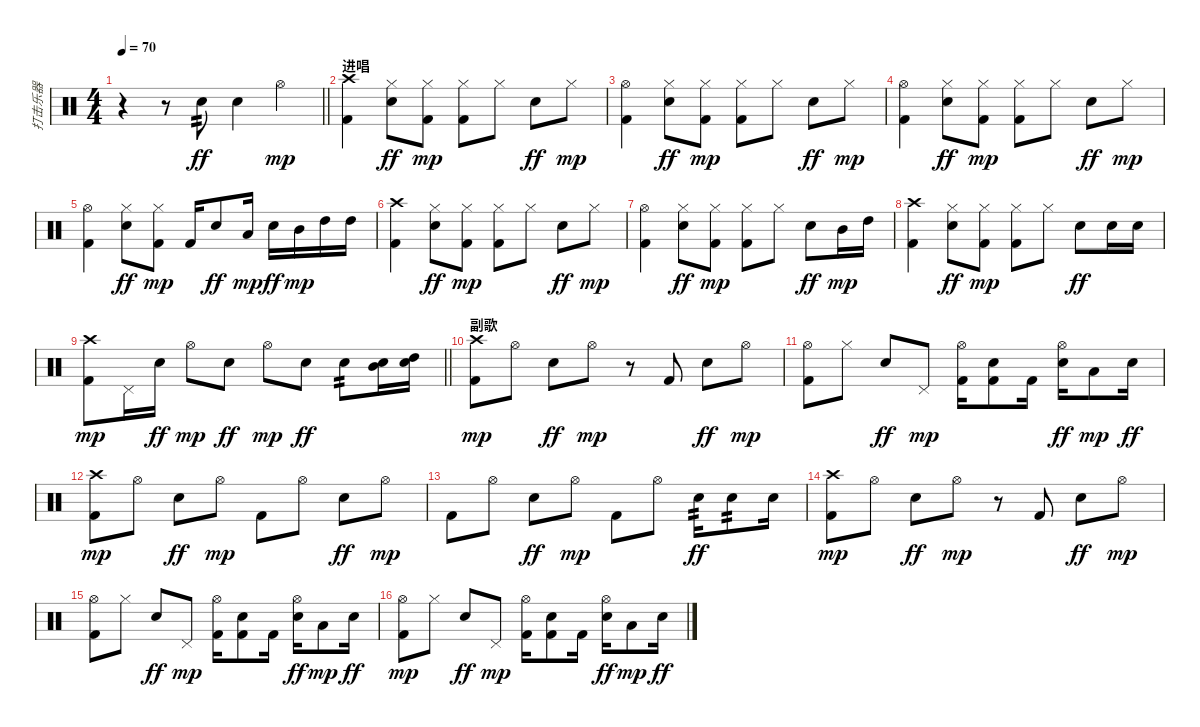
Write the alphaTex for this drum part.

\track ("打击乐器" "打击乐器") {instrument percussion}
\staff {score}
\articulation defaults
\ts (4 4)
\tempo 70
\clef neutral
\barLineRight lightlight
\ks c
r.4{dy mp} r.8 "Snare (hit) 2".8{tp 2 dy ff} "Snare (hit) 2".4 "Hi-Hat (open)".4{dy mp} |
\section ("" "进唱")
("Crash high (hit)" "Kick (hit) 2").4 ("Hi-Hat (closed)" "Snare (hit) 2").8{dy ff} ("Hi-Hat (closed)" "Kick (hit) 2").8{dy mp} ("Hi-Hat (closed)" "Kick (hit) 2").8 "Hi-Hat (closed)".8 "Snare (hit) 2".8{dy ff} "Hi-Hat (closed)".8{dy mp} |
("Hi-Hat (open)" "Kick (hit) 2").4 ("Hi-Hat (closed)" "Snare (hit) 2").8{dy ff} ("Hi-Hat (closed)" "Kick (hit) 2").8{dy mp} ("Hi-Hat (closed)" "Kick (hit) 2").8 "Hi-Hat (closed)".8 "Snare (hit) 2".8{dy ff} "Hi-Hat (closed)".8{dy mp} |
("Hi-Hat (open)" "Kick (hit) 2").4 ("Hi-Hat (closed)" "Snare (hit) 2").8{dy ff} ("Hi-Hat (closed)" "Kick (hit) 2").8{dy mp} ("Hi-Hat (closed)" "Kick (hit) 2").8 "Hi-Hat (closed)".8 "Snare (hit) 2".8{dy ff} "Hi-Hat (closed)".8{dy mp} |
("Hi-Hat (open)" "Kick (hit) 2").4 ("Hi-Hat (closed)" "Snare (hit) 2").8{dy ff} ("Hi-Hat (closed)" "Kick (hit) 2").8{dy mp} "Kick (hit) 2".16 "Snare (hit) 2".8{dy ff} "Low Tom (hit)".16{dy mp} "Snare (hit) 2".16{dy ff} "Mid Tom (hit)".16{dy mp} "High Tom (hit)".16 "High Tom (hit)".16 |
("Crash high (hit)" "Kick (hit) 2").4 ("Hi-Hat (closed)" "Snare (hit) 2").8{dy ff} ("Hi-Hat (closed)" "Kick (hit) 2").8{dy mp} ("Hi-Hat (closed)" "Kick (hit) 2").8 "Hi-Hat (closed)".8 "Snare (hit) 2".8{dy ff} "Hi-Hat (closed)".8{dy mp} |
("Hi-Hat (open)" "Kick (hit) 2").4 ("Hi-Hat (closed)" "Snare (hit) 2").8{dy ff} ("Hi-Hat (closed)" "Kick (hit) 2").8{dy mp} ("Hi-Hat (closed)" "Kick (hit) 2").8 "Hi-Hat (closed)".8 "Snare (hit) 2".8{dy ff} "Mid Tom (hit)".16{dy mp} "High Tom (hit)".16 |
("Crash high (hit)" "Kick (hit) 2").4 ("Hi-Hat (closed)" "Snare (hit) 2").8{dy ff} ("Hi-Hat (closed)" "Kick (hit) 2").8{dy mp} ("Hi-Hat (closed)" "Kick (hit) 2").8 "Hi-Hat (closed)".8 "Snare (hit) 2".8{dy ff} "Snare (hit) 2".16 "Snare (hit) 2".16 |
\barLineRight lightlight
("Crash high (hit)" "Kick (hit) 2").8{dy mp} "Pedal Hi-Hat (hit)".16 "Snare (hit) 2".16{dy ff} "Hi-Hat (open)".8{dy mp} "Snare (hit) 2".8{dy ff} "Hi-Hat (open)".8{dy mp} "Snare (hit) 2".8{dy ff} "Snare (hit) 2".8{tp 2} ("Mid Tom (hit)" "Snare (hit) 2").16 ("High Tom (hit)" "Snare (hit) 2").16 |
\section ("" "副歌")
("Crash high (hit)" "Kick (hit) 2").8{dy mp} "Hi-Hat (open)".8 "Snare (hit) 2".8{dy ff} "Hi-Hat (open)".8{dy mp} r.8 "Kick (hit) 2".8 "Snare (hit) 2".8{dy ff} "Hi-Hat (open)".8{dy mp} |
("Hi-Hat (open)" "Kick (hit) 2").8 "Hi-Hat (closed)".8 "Snare (hit) 2".8{dy ff} "Pedal Hi-Hat (hit)".8{dy mp} ("Hi-Hat (open)" "Kick (hit) 2").16 ("Snare (hit) 2" "Kick (hit) 2").8 "Kick (hit) 2".16 ("Hi-Hat (open)" "Snare (hit) 2").16{dy ff} "Low Tom (hit)".8{dy mp} "Snare (hit) 2".16{dy ff} |
("Crash high (hit)" "Kick (hit) 2").8{dy mp} "Hi-Hat (open)".8 "Snare (hit) 2".8{dy ff} "Hi-Hat (open)".8{dy mp} "Kick (hit) 2".8 "Hi-Hat (open)".8 "Snare (hit) 2".8{dy ff} "Hi-Hat (open)".8{dy mp} |
"Kick (hit) 2".8 "Hi-Hat (open)".8 "Snare (hit) 2".8{dy ff} "Hi-Hat (open)".8{dy mp} "Kick (hit) 2".8 "Hi-Hat (open)".8 "Snare (hit) 2".16{tp 2 dy ff} "Snare (hit) 2".8{tp 2} "Snare (hit) 2".16 |
("Crash high (hit)" "Kick (hit) 2").8{dy mp} "Hi-Hat (open)".8 "Snare (hit) 2".8{dy ff} "Hi-Hat (open)".8{dy mp} r.8 "Kick (hit) 2".8 "Snare (hit) 2".8{dy ff} "Hi-Hat (open)".8{dy mp} |
("Hi-Hat (open)" "Kick (hit) 2").8 "Hi-Hat (closed)".8 "Snare (hit) 2".8{dy ff} "Pedal Hi-Hat (hit)".8{dy mp} ("Hi-Hat (open)" "Kick (hit) 2").16 ("Snare (hit) 2" "Kick (hit) 2").8 "Kick (hit) 2".16 ("Hi-Hat (open)" "Snare (hit) 2").16{dy ff} "Low Tom (hit)".8{dy mp} "Snare (hit) 2".16{dy ff} |
("Hi-Hat (open)" "Kick (hit) 2").8{dy mp} "Hi-Hat (closed)".8 "Snare (hit) 2".8{dy ff} "Pedal Hi-Hat (hit)".8{dy mp} ("Hi-Hat (open)" "Kick (hit) 2").16 ("Snare (hit) 2" "Kick (hit) 2").8 "Kick (hit) 2".16 ("Hi-Hat (open)" "Snare (hit) 2").16{dy ff} "Low Tom (hit)".8{dy mp} "Snare (hit) 2".16{dy ff}
